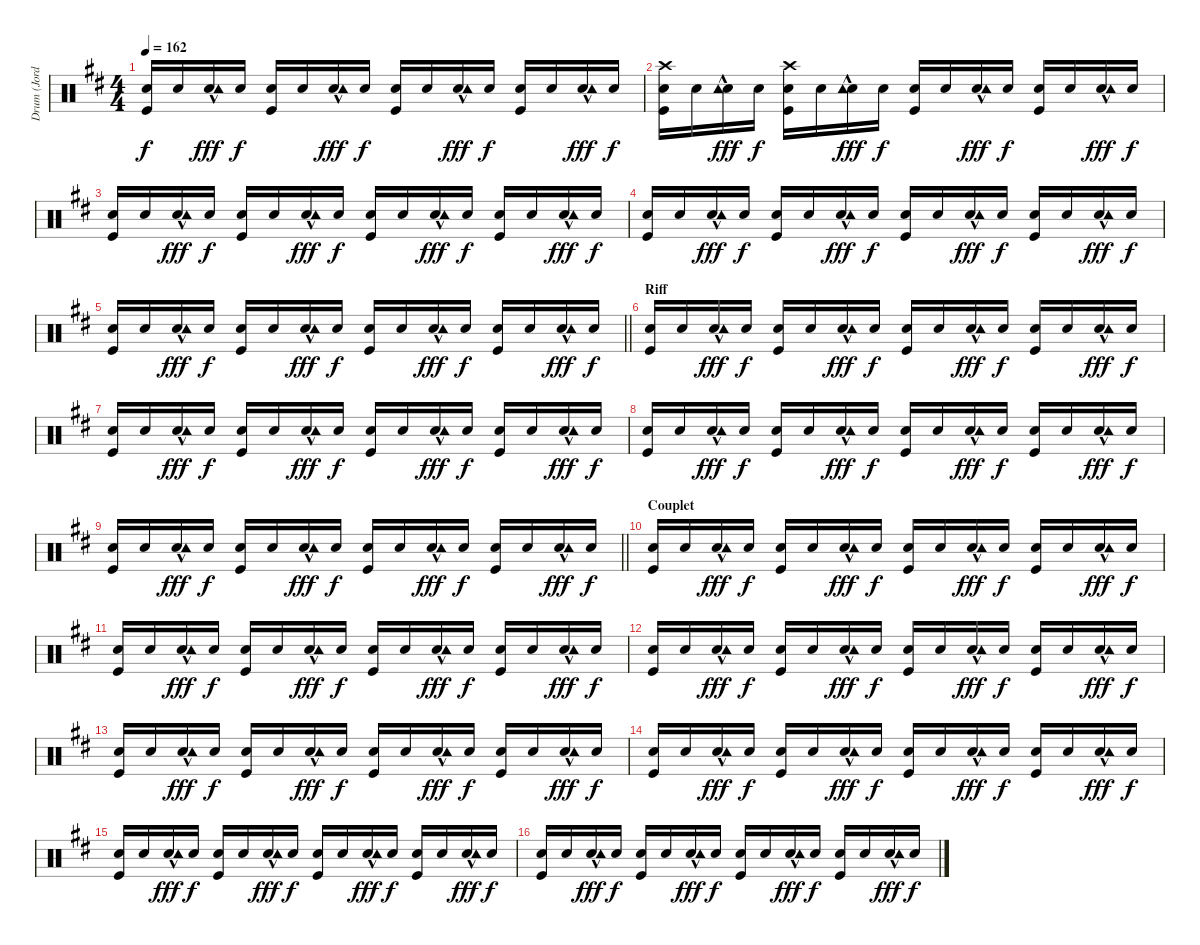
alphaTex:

\track ("Drum (Jordan)" "Drum (Jord") {instrument percussion}
\staff {score}
\articulation defaults
\ts (4 4)
\tempo 162
\clef neutral
\ks d
("Snare (hit) 2" "Kick (hit)").16{dy f} "Snare (hit) 2".16 ("Snare (hit) 2"{hac} "Tambourine (hit)").16{dy fff} "Snare (hit) 2".16{dy f} ("Snare (hit) 2" "Kick (hit)").16 "Snare (hit) 2".16 ("Snare (hit) 2"{hac} "Tambourine (hit)").16{dy fff} "Snare (hit) 2".16{dy f} ("Snare (hit) 2" "Kick (hit)").16 "Snare (hit) 2".16 ("Snare (hit) 2"{hac} "Tambourine (hit)").16{dy fff} "Snare (hit) 2".16{dy f} ("Snare (hit) 2" "Kick (hit)").16 "Snare (hit) 2".16 ("Snare (hit) 2"{hac} "Tambourine (hit)").16{dy fff} "Snare (hit) 2".16{dy f} |
("Snare (hit) 2" "Kick (hit)" "Crash high (hit)").16 "Snare (hit) 2".16 ("Snare (hit) 2"{hac} "Tambourine (hit)").16{dy fff} "Snare (hit) 2".16{dy f} ("Snare (hit) 2" "Kick (hit)" "Crash high (hit)").16 "Snare (hit) 2".16 ("Snare (hit) 2"{hac} "Tambourine (hit)").16{dy fff} "Snare (hit) 2".16{dy f} ("Snare (hit) 2" "Kick (hit)").16 "Snare (hit) 2".16 ("Snare (hit) 2"{hac} "Tambourine (hit)").16{dy fff} "Snare (hit) 2".16{dy f} ("Snare (hit) 2" "Kick (hit)").16 "Snare (hit) 2".16 ("Snare (hit) 2"{hac} "Tambourine (hit)").16{dy fff} "Snare (hit) 2".16{dy f} |
("Snare (hit) 2" "Kick (hit)").16 "Snare (hit) 2".16 ("Snare (hit) 2"{hac} "Tambourine (hit)").16{dy fff} "Snare (hit) 2".16{dy f} ("Snare (hit) 2" "Kick (hit)").16 "Snare (hit) 2".16 ("Snare (hit) 2"{hac} "Tambourine (hit)").16{dy fff} "Snare (hit) 2".16{dy f} ("Snare (hit) 2" "Kick (hit)").16 "Snare (hit) 2".16 ("Snare (hit) 2"{hac} "Tambourine (hit)").16{dy fff} "Snare (hit) 2".16{dy f} ("Snare (hit) 2" "Kick (hit)").16 "Snare (hit) 2".16 ("Snare (hit) 2"{hac} "Tambourine (hit)").16{dy fff} "Snare (hit) 2".16{dy f} |
("Snare (hit) 2" "Kick (hit)").16 "Snare (hit) 2".16 ("Snare (hit) 2"{hac} "Tambourine (hit)").16{dy fff} "Snare (hit) 2".16{dy f} ("Snare (hit) 2" "Kick (hit)").16 "Snare (hit) 2".16 ("Snare (hit) 2"{hac} "Tambourine (hit)").16{dy fff} "Snare (hit) 2".16{dy f} ("Snare (hit) 2" "Kick (hit)").16 "Snare (hit) 2".16 ("Snare (hit) 2"{hac} "Tambourine (hit)").16{dy fff} "Snare (hit) 2".16{dy f} ("Snare (hit) 2" "Kick (hit)").16 "Snare (hit) 2".16 ("Snare (hit) 2"{hac} "Tambourine (hit)").16{dy fff} "Snare (hit) 2".16{dy f} |
\barLineRight lightlight
("Snare (hit) 2" "Kick (hit)").16 "Snare (hit) 2".16 ("Snare (hit) 2"{hac} "Tambourine (hit)").16{dy fff} "Snare (hit) 2".16{dy f} ("Snare (hit) 2" "Kick (hit)").16 "Snare (hit) 2".16 ("Snare (hit) 2"{hac} "Tambourine (hit)").16{dy fff} "Snare (hit) 2".16{dy f} ("Snare (hit) 2" "Kick (hit)").16 "Snare (hit) 2".16 ("Snare (hit) 2"{hac} "Tambourine (hit)").16{dy fff} "Snare (hit) 2".16{dy f} ("Snare (hit) 2" "Kick (hit)").16 "Snare (hit) 2".16 ("Snare (hit) 2"{hac} "Tambourine (hit)").16{dy fff} "Snare (hit) 2".16{dy f} |
\section ("" "Riff")
("Snare (hit) 2" "Kick (hit)").16 "Snare (hit) 2".16 ("Snare (hit) 2"{hac} "Tambourine (hit)").16{dy fff} "Snare (hit) 2".16{dy f} ("Snare (hit) 2" "Kick (hit)").16 "Snare (hit) 2".16 ("Snare (hit) 2"{hac} "Tambourine (hit)").16{dy fff} "Snare (hit) 2".16{dy f} ("Snare (hit) 2" "Kick (hit)").16 "Snare (hit) 2".16 ("Snare (hit) 2"{hac} "Tambourine (hit)").16{dy fff} "Snare (hit) 2".16{dy f} ("Snare (hit) 2" "Kick (hit)").16 "Snare (hit) 2".16 ("Snare (hit) 2"{hac} "Tambourine (hit)").16{dy fff} "Snare (hit) 2".16{dy f} |
("Snare (hit) 2" "Kick (hit)").16 "Snare (hit) 2".16 ("Snare (hit) 2"{hac} "Tambourine (hit)").16{dy fff} "Snare (hit) 2".16{dy f} ("Snare (hit) 2" "Kick (hit)").16 "Snare (hit) 2".16 ("Snare (hit) 2"{hac} "Tambourine (hit)").16{dy fff} "Snare (hit) 2".16{dy f} ("Snare (hit) 2" "Kick (hit)").16 "Snare (hit) 2".16 ("Snare (hit) 2"{hac} "Tambourine (hit)").16{dy fff} "Snare (hit) 2".16{dy f} ("Snare (hit) 2" "Kick (hit)").16 "Snare (hit) 2".16 ("Snare (hit) 2"{hac} "Tambourine (hit)").16{dy fff} "Snare (hit) 2".16{dy f} |
("Snare (hit) 2" "Kick (hit)").16 "Snare (hit) 2".16 ("Snare (hit) 2"{hac} "Tambourine (hit)").16{dy fff} "Snare (hit) 2".16{dy f} ("Snare (hit) 2" "Kick (hit)").16 "Snare (hit) 2".16 ("Snare (hit) 2"{hac} "Tambourine (hit)").16{dy fff} "Snare (hit) 2".16{dy f} ("Snare (hit) 2" "Kick (hit)").16 "Snare (hit) 2".16 ("Snare (hit) 2"{hac} "Tambourine (hit)").16{dy fff} "Snare (hit) 2".16{dy f} ("Snare (hit) 2" "Kick (hit)").16 "Snare (hit) 2".16 ("Snare (hit) 2"{hac} "Tambourine (hit)").16{dy fff} "Snare (hit) 2".16{dy f} |
\barLineRight lightlight
("Snare (hit) 2" "Kick (hit)").16 "Snare (hit) 2".16 ("Snare (hit) 2"{hac} "Tambourine (hit)").16{dy fff} "Snare (hit) 2".16{dy f} ("Snare (hit) 2" "Kick (hit)").16 "Snare (hit) 2".16 ("Snare (hit) 2"{hac} "Tambourine (hit)").16{dy fff} "Snare (hit) 2".16{dy f} ("Snare (hit) 2" "Kick (hit)").16 "Snare (hit) 2".16 ("Snare (hit) 2"{hac} "Tambourine (hit)").16{dy fff} "Snare (hit) 2".16{dy f} ("Snare (hit) 2" "Kick (hit)").16 "Snare (hit) 2".16 ("Snare (hit) 2"{hac} "Tambourine (hit)").16{dy fff} "Snare (hit) 2".16{dy f} |
\section ("" "Couplet")
("Snare (hit) 2" "Kick (hit)").16 "Snare (hit) 2".16 ("Snare (hit) 2"{hac} "Tambourine (hit)").16{dy fff} "Snare (hit) 2".16{dy f} ("Snare (hit) 2" "Kick (hit)").16 "Snare (hit) 2".16 ("Snare (hit) 2"{hac} "Tambourine (hit)").16{dy fff} "Snare (hit) 2".16{dy f} ("Snare (hit) 2" "Kick (hit)").16 "Snare (hit) 2".16 ("Snare (hit) 2"{hac} "Tambourine (hit)").16{dy fff} "Snare (hit) 2".16{dy f} ("Snare (hit) 2" "Kick (hit)").16 "Snare (hit) 2".16 ("Snare (hit) 2"{hac} "Tambourine (hit)").16{dy fff} "Snare (hit) 2".16{dy f} |
("Snare (hit) 2" "Kick (hit)").16 "Snare (hit) 2".16 ("Snare (hit) 2"{hac} "Tambourine (hit)").16{dy fff} "Snare (hit) 2".16{dy f} ("Snare (hit) 2" "Kick (hit)").16 "Snare (hit) 2".16 ("Snare (hit) 2"{hac} "Tambourine (hit)").16{dy fff} "Snare (hit) 2".16{dy f} ("Snare (hit) 2" "Kick (hit)").16 "Snare (hit) 2".16 ("Snare (hit) 2"{hac} "Tambourine (hit)").16{dy fff} "Snare (hit) 2".16{dy f} ("Snare (hit) 2" "Kick (hit)").16 "Snare (hit) 2".16 ("Snare (hit) 2"{hac} "Tambourine (hit)").16{dy fff} "Snare (hit) 2".16{dy f} |
("Snare (hit) 2" "Kick (hit)").16 "Snare (hit) 2".16 ("Snare (hit) 2"{hac} "Tambourine (hit)").16{dy fff} "Snare (hit) 2".16{dy f} ("Snare (hit) 2" "Kick (hit)").16 "Snare (hit) 2".16 ("Snare (hit) 2"{hac} "Tambourine (hit)").16{dy fff} "Snare (hit) 2".16{dy f} ("Snare (hit) 2" "Kick (hit)").16 "Snare (hit) 2".16 ("Snare (hit) 2"{hac} "Tambourine (hit)").16{dy fff} "Snare (hit) 2".16{dy f} ("Snare (hit) 2" "Kick (hit)").16 "Snare (hit) 2".16 ("Snare (hit) 2"{hac} "Tambourine (hit)").16{dy fff} "Snare (hit) 2".16{dy f} |
("Snare (hit) 2" "Kick (hit)").16 "Snare (hit) 2".16 ("Snare (hit) 2"{hac} "Tambourine (hit)").16{dy fff} "Snare (hit) 2".16{dy f} ("Snare (hit) 2" "Kick (hit)").16 "Snare (hit) 2".16 ("Snare (hit) 2"{hac} "Tambourine (hit)").16{dy fff} "Snare (hit) 2".16{dy f} ("Snare (hit) 2" "Kick (hit)").16 "Snare (hit) 2".16 ("Snare (hit) 2"{hac} "Tambourine (hit)").16{dy fff} "Snare (hit) 2".16{dy f} ("Snare (hit) 2" "Kick (hit)").16 "Snare (hit) 2".16 ("Snare (hit) 2"{hac} "Tambourine (hit)").16{dy fff} "Snare (hit) 2".16{dy f} |
("Snare (hit) 2" "Kick (hit)").16 "Snare (hit) 2".16 ("Snare (hit) 2"{hac} "Tambourine (hit)").16{dy fff} "Snare (hit) 2".16{dy f} ("Snare (hit) 2" "Kick (hit)").16 "Snare (hit) 2".16 ("Snare (hit) 2"{hac} "Tambourine (hit)").16{dy fff} "Snare (hit) 2".16{dy f} ("Snare (hit) 2" "Kick (hit)").16 "Snare (hit) 2".16 ("Snare (hit) 2"{hac} "Tambourine (hit)").16{dy fff} "Snare (hit) 2".16{dy f} ("Snare (hit) 2" "Kick (hit)").16 "Snare (hit) 2".16 ("Snare (hit) 2"{hac} "Tambourine (hit)").16{dy fff} "Snare (hit) 2".16{dy f} |
("Snare (hit) 2" "Kick (hit)").16 "Snare (hit) 2".16 ("Snare (hit) 2"{hac} "Tambourine (hit)").16{dy fff} "Snare (hit) 2".16{dy f} ("Snare (hit) 2" "Kick (hit)").16 "Snare (hit) 2".16 ("Snare (hit) 2"{hac} "Tambourine (hit)").16{dy fff} "Snare (hit) 2".16{dy f} ("Snare (hit) 2" "Kick (hit)").16 "Snare (hit) 2".16 ("Snare (hit) 2"{hac} "Tambourine (hit)").16{dy fff} "Snare (hit) 2".16{dy f} ("Snare (hit) 2" "Kick (hit)").16 "Snare (hit) 2".16 ("Snare (hit) 2"{hac} "Tambourine (hit)").16{dy fff} "Snare (hit) 2".16{dy f} |
("Snare (hit) 2" "Kick (hit)").16 "Snare (hit) 2".16 ("Snare (hit) 2"{hac} "Tambourine (hit)").16{dy fff} "Snare (hit) 2".16{dy f} ("Snare (hit) 2" "Kick (hit)").16 "Snare (hit) 2".16 ("Snare (hit) 2"{hac} "Tambourine (hit)").16{dy fff} "Snare (hit) 2".16{dy f} ("Snare (hit) 2" "Kick (hit)").16 "Snare (hit) 2".16 ("Snare (hit) 2"{hac} "Tambourine (hit)").16{dy fff} "Snare (hit) 2".16{dy f} ("Snare (hit) 2" "Kick (hit)").16 "Snare (hit) 2".16 ("Snare (hit) 2"{hac} "Tambourine (hit)").16{dy fff} "Snare (hit) 2".16{dy f}
